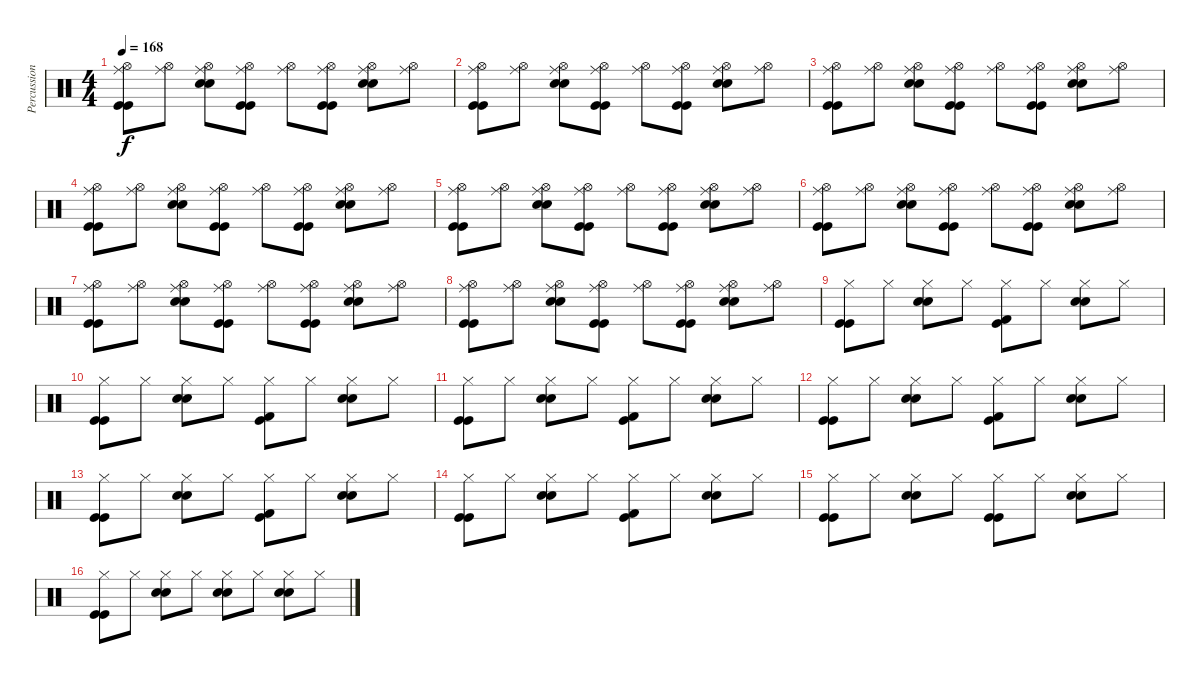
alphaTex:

\track ("Percussion" "Percussion") {instrument percussion}
\staff {score}
\articulation defaults
\ts (4 4)
\tempo 168
\clef neutral
\ks c
("Ride (middle)" "Kick (hit)" "Hi-Hat (open)" "Kick (hit)").8{dy f} ("Ride (middle)" "Hi-Hat (open)").8 ("Ride (middle)" "Snare (hit) 2" "Hi-Hat (open)" "Snare (hit) 2").8 ("Ride (middle)" "Kick (hit)" "Hi-Hat (open)" "Kick (hit)").8 ("Ride (middle)" "Hi-Hat (open)").8 ("Ride (middle)" "Kick (hit)" "Hi-Hat (open)" "Kick (hit)").8 ("Ride (middle)" "Snare (hit) 2" "Hi-Hat (open)" "Snare (hit) 2").8 ("Ride (middle)" "Hi-Hat (open)").8 |
("Ride (middle)" "Kick (hit)" "Hi-Hat (open)" "Kick (hit)").8 ("Ride (middle)" "Hi-Hat (open)").8 ("Ride (middle)" "Snare (hit) 2" "Hi-Hat (open)" "Snare (hit) 2").8 ("Ride (middle)" "Kick (hit)" "Hi-Hat (open)" "Kick (hit)").8 ("Ride (middle)" "Hi-Hat (open)").8 ("Ride (middle)" "Kick (hit)" "Hi-Hat (open)" "Kick (hit)").8 ("Ride (middle)" "Snare (hit) 2" "Hi-Hat (open)" "Snare (hit) 2").8 ("Ride (middle)" "Hi-Hat (open)").8 |
("Ride (middle)" "Kick (hit)" "Hi-Hat (open)" "Kick (hit)").8 ("Ride (middle)" "Hi-Hat (open)").8 ("Ride (middle)" "Snare (hit) 2" "Hi-Hat (open)" "Snare (hit) 2").8 ("Ride (middle)" "Kick (hit)" "Hi-Hat (open)" "Kick (hit)").8 ("Ride (middle)" "Hi-Hat (open)").8 ("Ride (middle)" "Kick (hit)" "Hi-Hat (open)" "Kick (hit)").8 ("Ride (middle)" "Snare (hit) 2" "Hi-Hat (open)" "Snare (hit) 2").8 ("Ride (middle)" "Hi-Hat (open)").8 |
("Ride (middle)" "Kick (hit)" "Hi-Hat (open)" "Kick (hit)").8 ("Ride (middle)" "Hi-Hat (open)").8 ("Ride (middle)" "Snare (hit) 2" "Hi-Hat (open)" "Snare (hit) 2").8 ("Ride (middle)" "Kick (hit)" "Hi-Hat (open)" "Kick (hit)").8 ("Ride (middle)" "Hi-Hat (open)").8 ("Ride (middle)" "Kick (hit)" "Hi-Hat (open)" "Kick (hit)").8 ("Ride (middle)" "Snare (hit) 2" "Hi-Hat (open)" "Snare (hit) 2").8 ("Ride (middle)" "Hi-Hat (open)").8 |
("Ride (middle)" "Kick (hit)" "Hi-Hat (open)" "Kick (hit)").8 ("Ride (middle)" "Hi-Hat (open)").8 ("Ride (middle)" "Snare (hit) 2" "Hi-Hat (open)" "Snare (hit) 2").8 ("Ride (middle)" "Kick (hit)" "Hi-Hat (open)" "Kick (hit)").8 ("Ride (middle)" "Hi-Hat (open)").8 ("Ride (middle)" "Kick (hit)" "Hi-Hat (open)" "Kick (hit)").8 ("Ride (middle)" "Snare (hit) 2" "Hi-Hat (open)" "Snare (hit) 2").8 ("Ride (middle)" "Hi-Hat (open)").8 |
("Ride (middle)" "Kick (hit)" "Hi-Hat (open)" "Kick (hit)").8 ("Ride (middle)" "Hi-Hat (open)").8 ("Ride (middle)" "Snare (hit) 2" "Hi-Hat (open)" "Snare (hit) 2").8 ("Ride (middle)" "Kick (hit)" "Hi-Hat (open)" "Kick (hit)").8 ("Ride (middle)" "Hi-Hat (open)").8 ("Ride (middle)" "Kick (hit)" "Hi-Hat (open)" "Kick (hit)").8 ("Ride (middle)" "Snare (hit) 2" "Hi-Hat (open)" "Snare (hit) 2").8 ("Ride (middle)" "Hi-Hat (open)").8 |
("Ride (middle)" "Kick (hit)" "Hi-Hat (open)" "Kick (hit)").8 ("Ride (middle)" "Hi-Hat (open)").8 ("Ride (middle)" "Snare (hit) 2" "Hi-Hat (open)" "Snare (hit) 2").8 ("Ride (middle)" "Kick (hit)" "Hi-Hat (open)" "Kick (hit)").8 ("Ride (middle)" "Hi-Hat (open)").8 ("Ride (middle)" "Kick (hit)" "Hi-Hat (open)" "Kick (hit)").8 ("Ride (middle)" "Snare (hit) 2" "Hi-Hat (open)" "Snare (hit) 2").8 ("Ride (middle)" "Hi-Hat (open)").8 |
("Ride (middle)" "Kick (hit)" "Hi-Hat (open)" "Kick (hit)").8 ("Ride (middle)" "Hi-Hat (open)").8 ("Ride (middle)" "Snare (hit) 2" "Hi-Hat (open)" "Snare (hit) 2").8 ("Ride (middle)" "Kick (hit)" "Hi-Hat (open)" "Kick (hit)").8 ("Ride (middle)" "Hi-Hat (open)").8 ("Ride (middle)" "Kick (hit)" "Hi-Hat (open)" "Kick (hit)").8 ("Ride (middle)" "Snare (hit) 2" "Hi-Hat (open)" "Snare (hit) 2").8 ("Ride (middle)" "Hi-Hat (open)").8 |
("Kick (hit)" "Hi-Hat (closed)" "Kick (hit)").8 "Hi-Hat (closed)".8 ("Snare (hit) 2" "Hi-Hat (closed)" "Snare (hit) 2").8 "Hi-Hat (closed)".8 ("Kick (hit)" "Hi-Hat (closed)" "Kick (hit) 2").8 "Hi-Hat (closed)".8 ("Snare (hit) 2" "Hi-Hat (closed)" "Snare (hit) 2").8 "Hi-Hat (closed)".8 |
("Kick (hit)" "Hi-Hat (closed)" "Kick (hit)").8 "Hi-Hat (closed)".8 ("Snare (hit) 2" "Hi-Hat (closed)" "Snare (hit) 2").8 "Hi-Hat (closed)".8 ("Kick (hit)" "Hi-Hat (closed)" "Kick (hit) 2").8 "Hi-Hat (closed)".8 ("Snare (hit) 2" "Hi-Hat (closed)" "Snare (hit) 2").8 "Hi-Hat (closed)".8 |
("Kick (hit)" "Hi-Hat (closed)" "Kick (hit)").8 "Hi-Hat (closed)".8 ("Snare (hit) 2" "Hi-Hat (closed)" "Snare (hit) 2").8 "Hi-Hat (closed)".8 ("Kick (hit)" "Hi-Hat (closed)" "Kick (hit) 2").8 "Hi-Hat (closed)".8 ("Snare (hit) 2" "Hi-Hat (closed)" "Snare (hit) 2").8 "Hi-Hat (closed)".8 |
("Kick (hit)" "Hi-Hat (closed)" "Kick (hit)").8 "Hi-Hat (closed)".8 ("Snare (hit) 2" "Hi-Hat (closed)" "Snare (hit) 2").8 "Hi-Hat (closed)".8 ("Kick (hit)" "Hi-Hat (closed)" "Kick (hit) 2").8 "Hi-Hat (closed)".8 ("Snare (hit) 2" "Hi-Hat (closed)" "Snare (hit) 2").8 "Hi-Hat (closed)".8 |
("Kick (hit)" "Hi-Hat (closed)" "Kick (hit)").8 "Hi-Hat (closed)".8 ("Snare (hit) 2" "Hi-Hat (closed)" "Snare (hit) 2").8 "Hi-Hat (closed)".8 ("Kick (hit)" "Hi-Hat (closed)" "Kick (hit) 2").8 "Hi-Hat (closed)".8 ("Snare (hit) 2" "Hi-Hat (closed)" "Snare (hit) 2").8 "Hi-Hat (closed)".8 |
("Kick (hit)" "Hi-Hat (closed)" "Kick (hit)").8 "Hi-Hat (closed)".8 ("Snare (hit) 2" "Hi-Hat (closed)" "Snare (hit) 2").8 "Hi-Hat (closed)".8 ("Kick (hit)" "Hi-Hat (closed)" "Kick (hit) 2").8 "Hi-Hat (closed)".8 ("Snare (hit) 2" "Hi-Hat (closed)" "Snare (hit) 2").8 "Hi-Hat (closed)".8 |
("Kick (hit)" "Hi-Hat (closed)" "Kick (hit)").8 "Hi-Hat (closed)".8 ("Snare (hit) 2" "Hi-Hat (closed)" "Snare (hit) 2").8 "Hi-Hat (closed)".8 ("Kick (hit)" "Hi-Hat (closed)" "Kick (hit)").8 "Hi-Hat (closed)".8 ("Snare (hit) 2" "Hi-Hat (closed)" "Snare (hit) 2").8 "Hi-Hat (closed)".8 |
("Kick (hit)" "Hi-Hat (closed)" "Kick (hit)").8 "Hi-Hat (closed)".8 ("Snare (hit) 2" "Hi-Hat (closed)" "Snare (hit) 2").8 "Hi-Hat (closed)".8 ("Snare (hit) 2" "Hi-Hat (closed)" "Snare (hit) 2").8 "Hi-Hat (closed)".8 ("Snare (hit) 2" "Hi-Hat (closed)" "Snare (hit) 2").8 "Hi-Hat (closed)".8
